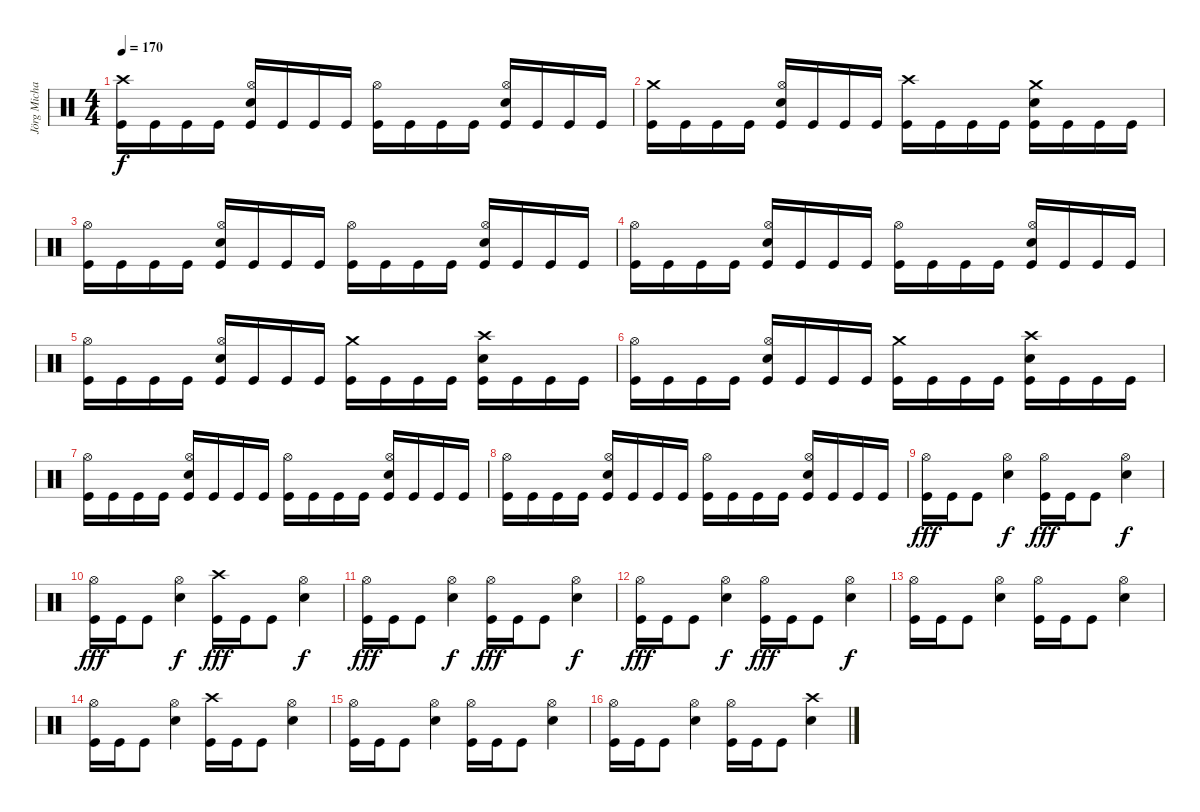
\track ("Jörg Michael" "Jörg Micha") {instrument percussion}
\staff {score}
\articulation defaults
\ts (4 4)
\tempo 170
\clef neutral
\ks c
("Crash high (hit)" "Kick (hit)").16{dy f} "Kick (hit)".16 "Kick (hit)".16 "Kick (hit)".16 ("Hi-Hat (open)" "Electric Snare (hit)" "Kick (hit)").16 "Kick (hit)".16 "Kick (hit)".16 "Kick (hit)".16 ("Hi-Hat (open)" "Kick (hit)").16 "Kick (hit)".16 "Kick (hit)".16 "Kick (hit)".16 ("Hi-Hat (open)" "Electric Snare (hit)" "Kick (hit)").16 "Kick (hit)".16 "Kick (hit)".16 "Kick (hit)".16 |
("Crash medium (hit)" "Kick (hit)").16 "Kick (hit)".16 "Kick (hit)".16 "Kick (hit)".16 ("Hi-Hat (open)" "Electric Snare (hit)" "Kick (hit)").16 "Kick (hit)".16 "Kick (hit)".16 "Kick (hit)".16 ("Crash high (hit)" "Kick (hit)").16 "Kick (hit)".16 "Kick (hit)".16 "Kick (hit)".16 ("Crash medium (hit)" "Electric Snare (hit)" "Kick (hit)").16 "Kick (hit)".16 "Kick (hit)".16 "Kick (hit)".16 |
("Hi-Hat (open)" "Kick (hit)").16 "Kick (hit)".16 "Kick (hit)".16 "Kick (hit)".16 ("Hi-Hat (open)" "Electric Snare (hit)" "Kick (hit)").16 "Kick (hit)".16 "Kick (hit)".16 "Kick (hit)".16 ("Hi-Hat (open)" "Kick (hit)").16 "Kick (hit)".16 "Kick (hit)".16 "Kick (hit)".16 ("Hi-Hat (open)" "Electric Snare (hit)" "Kick (hit)").16 "Kick (hit)".16 "Kick (hit)".16 "Kick (hit)".16 |
("Hi-Hat (open)" "Kick (hit)").16 "Kick (hit)".16 "Kick (hit)".16 "Kick (hit)".16 ("Hi-Hat (open)" "Electric Snare (hit)" "Kick (hit)").16 "Kick (hit)".16 "Kick (hit)".16 "Kick (hit)".16 ("Hi-Hat (open)" "Kick (hit)").16 "Kick (hit)".16 "Kick (hit)".16 "Kick (hit)".16 ("Hi-Hat (open)" "Electric Snare (hit)" "Kick (hit)").16 "Kick (hit)".16 "Kick (hit)".16 "Kick (hit)".16 |
("Hi-Hat (open)" "Kick (hit)").16 "Kick (hit)".16 "Kick (hit)".16 "Kick (hit)".16 ("Hi-Hat (open)" "Electric Snare (hit)" "Kick (hit)").16 "Kick (hit)".16 "Kick (hit)".16 "Kick (hit)".16 ("Crash medium (hit)" "Kick (hit)").16 "Kick (hit)".16 "Kick (hit)".16 "Kick (hit)".16 ("Crash high (hit)" "Electric Snare (hit)" "Kick (hit)").16 "Kick (hit)".16 "Kick (hit)".16 "Kick (hit)".16 |
("Hi-Hat (open)" "Kick (hit)").16 "Kick (hit)".16 "Kick (hit)".16 "Kick (hit)".16 ("Hi-Hat (open)" "Electric Snare (hit)" "Kick (hit)").16 "Kick (hit)".16 "Kick (hit)".16 "Kick (hit)".16 ("Crash medium (hit)" "Kick (hit)").16 "Kick (hit)".16 "Kick (hit)".16 "Kick (hit)".16 ("Crash high (hit)" "Electric Snare (hit)" "Kick (hit)").16 "Kick (hit)".16 "Kick (hit)".16 "Kick (hit)".16 |
("Hi-Hat (open)" "Kick (hit)").16 "Kick (hit)".16 "Kick (hit)".16 "Kick (hit)".16 ("Hi-Hat (open)" "Electric Snare (hit)" "Kick (hit)").16 "Kick (hit)".16 "Kick (hit)".16 "Kick (hit)".16 ("Hi-Hat (open)" "Kick (hit)").16 "Kick (hit)".16 "Kick (hit)".16 "Kick (hit)".16 ("Hi-Hat (open)" "Electric Snare (hit)" "Kick (hit)").16 "Kick (hit)".16 "Kick (hit)".16 "Kick (hit)".16 |
("Hi-Hat (open)" "Kick (hit)").16 "Kick (hit)".16 "Kick (hit)".16 "Kick (hit)".16 ("Hi-Hat (open)" "Electric Snare (hit)" "Kick (hit)").16 "Kick (hit)".16 "Kick (hit)".16 "Kick (hit)".16 ("Hi-Hat (open)" "Kick (hit)").16 "Kick (hit)".16 "Kick (hit)".16 "Kick (hit)".16 ("Hi-Hat (open)" "Electric Snare (hit)" "Kick (hit)").16 "Kick (hit)".16 "Kick (hit)".16 "Kick (hit)".16 |
("Hi-Hat (open)" "Kick (hit)").16{dy fff} "Kick (hit)".16 "Kick (hit)".8 ("Hi-Hat (open)" "Electric Snare (hit)").4{dy f} ("Hi-Hat (open)" "Kick (hit)").16{dy fff} "Kick (hit)".16 "Kick (hit)".8 ("Hi-Hat (open)" "Electric Snare (hit)").4{dy f} |
("Hi-Hat (open)" "Kick (hit)").16{dy fff} "Kick (hit)".16 "Kick (hit)".8 ("Hi-Hat (open)" "Electric Snare (hit)").4{dy f} ("Crash high (hit)" "Kick (hit)").16{dy fff} "Kick (hit)".16 "Kick (hit)".8 ("Hi-Hat (open)" "Electric Snare (hit)").4{dy f} |
("Hi-Hat (open)" "Kick (hit)").16{dy fff} "Kick (hit)".16 "Kick (hit)".8 ("Hi-Hat (open)" "Electric Snare (hit)").4{dy f} ("Hi-Hat (open)" "Kick (hit)").16{dy fff} "Kick (hit)".16 "Kick (hit)".8 ("Hi-Hat (open)" "Electric Snare (hit)").4{dy f} |
("Hi-Hat (open)" "Kick (hit)").16{dy fff} "Kick (hit)".16 "Kick (hit)".8 ("Hi-Hat (open)" "Electric Snare (hit)").4{dy f} ("Hi-Hat (open)" "Kick (hit)").16{dy fff} "Kick (hit)".16 "Kick (hit)".8 ("Hi-Hat (open)" "Electric Snare (hit)").4{dy f} |
("Hi-Hat (open)" "Kick (hit)").16 "Kick (hit)".16 "Kick (hit)".8 ("Hi-Hat (open)" "Electric Snare (hit)").4 ("Hi-Hat (open)" "Kick (hit)").16 "Kick (hit)".16 "Kick (hit)".8 ("Hi-Hat (open)" "Electric Snare (hit)").4 |
("Hi-Hat (open)" "Kick (hit)").16 "Kick (hit)".16 "Kick (hit)".8 ("Hi-Hat (open)" "Electric Snare (hit)").4 ("Crash high (hit)" "Kick (hit)").16 "Kick (hit)".16 "Kick (hit)".8 ("Hi-Hat (open)" "Electric Snare (hit)").4 |
("Hi-Hat (open)" "Kick (hit)").16 "Kick (hit)".16 "Kick (hit)".8 ("Hi-Hat (open)" "Electric Snare (hit)").4 ("Hi-Hat (open)" "Kick (hit)").16 "Kick (hit)".16 "Kick (hit)".8 ("Hi-Hat (open)" "Electric Snare (hit)").4 |
("Hi-Hat (open)" "Kick (hit)").16 "Kick (hit)".16 "Kick (hit)".8 ("Hi-Hat (open)" "Electric Snare (hit)").4 ("Hi-Hat (open)" "Kick (hit)").16 "Kick (hit)".16 "Kick (hit)".8 ("Crash high (hit)" "Electric Snare (hit)").4
